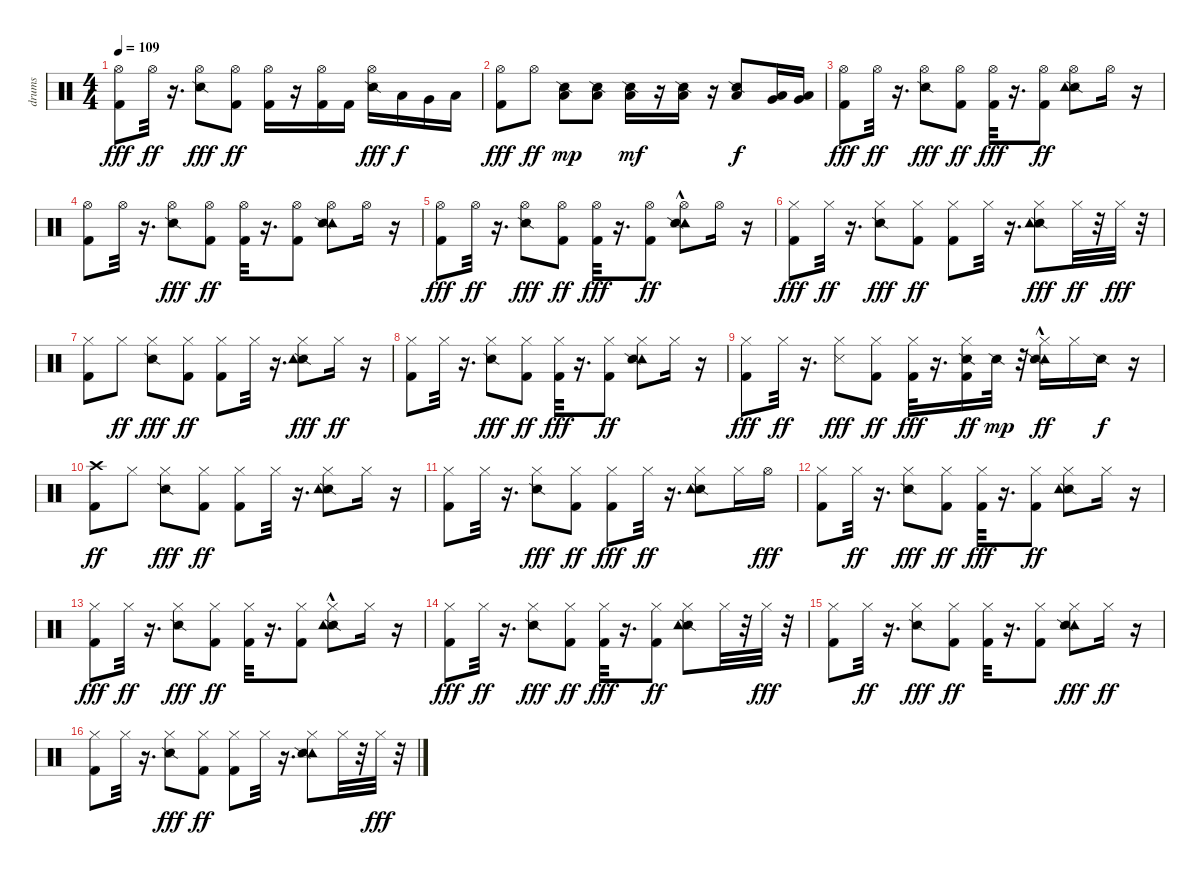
\track ("drums" "drums") {instrument percussion}
\staff {score}
\articulation defaults
\ts (4 4)
\tempo 109
\clef neutral
\ks c
("Kick (hit) 2" "Hi-Hat (open)").8{dy fff} "Hi-Hat (open)".32{dy ff} r.16{d} ("Hi-Hat (open)" "Snare (side stick) 2").8{dy fff} ("Hi-Hat (open)" "Kick (hit) 2").8{dy ff} ("Hi-Hat (open)" "Kick (hit) 2").16 r.16 ("Hi-Hat (open)" "Kick (hit) 2").16 "Kick (hit) 2".16 ("Hi-Hat (open)" "Snare (side stick) 2").16{dy fff} "Low Tom (hit)".16{dy f} "Very Low Tom (hit)".16 "Low Floor Tom (hit)".16 |
("Kick (hit) 2" "Hi-Hat (open)").8{dy fff} "Hi-Hat (open)".8{dy ff} ("Snare (side stick) 2" "Low Floor Tom (hit)").8{dy mp} ("Snare (side stick) 2" "Low Floor Tom (hit)").8 ("Low Floor Tom (hit)" "Snare (side stick) 2").16{dy mf} r.16 ("Low Floor Tom (hit)" "Snare (side stick) 2").16 r.16 ("Low Floor Tom (hit)" "Snare (side stick) 2").8{dy f} ("Low Tom (hit)" "Very Low Tom (hit)").16 ("Very Low Tom (hit)" "Low Floor Tom (hit)").16 |
("Kick (hit) 2" "Hi-Hat (open)").8{dy fff} "Hi-Hat (open)".32{dy ff} r.16{d} ("Snare (side stick) 2" "Hi-Hat (open)").8{dy fff} ("Hi-Hat (open)" "Kick (hit) 2").8{dy ff} ("Kick (hit) 2" "Hi-Hat (open)").32{dy fff} r.16{d} ("Hi-Hat (open)" "Kick (hit) 2").8{dy ff} ("Hi-Hat (open)" "Snare (side stick) 2" "Tambourine (hit)").8 "Hi-Hat (open)".16 r.16 |
("Hi-Hat (open)" "Kick (hit) 2").8 "Hi-Hat (open)".32 r.16{d} ("Hi-Hat (open)" "Snare (side stick) 2").8{dy fff} ("Kick (hit) 2" "Hi-Hat (open)").8{dy ff} ("Hi-Hat (open)" "Kick (hit) 2").32 r.16{d} ("Kick (hit) 2" "Hi-Hat (open)").8 ("Hi-Hat (open)" "Tambourine (hit)" "Snare (side stick) 2").8 "Hi-Hat (open)".16 r.16 |
("Kick (hit) 2" "Hi-Hat (open)").8{dy fff} "Hi-Hat (open)".32{dy ff} r.16{d} ("Snare (side stick) 2" "Hi-Hat (open)").8{dy fff} ("Kick (hit) 2" "Hi-Hat (open)").8{dy ff} ("Kick (hit) 2" "Hi-Hat (open)").32{dy fff} r.16{d} ("Kick (hit) 2" "Hi-Hat (open)").8{dy ff} ("Hi-Hat (open)" "Tambourine (hit)"{hac} "Snare (side stick) 2").8 "Hi-Hat (open)".16 r.16 |
("Kick (hit) 2" "Hi-Hat (closed)").8{dy fff} "Hi-Hat (closed)".32{dy ff} r.16{d} ("Hi-Hat (closed)" "Snare (side stick) 2").8{dy fff} ("Hi-Hat (closed)" "Kick (hit) 2").8{dy ff} ("Hi-Hat (closed)" "Kick (hit) 2").8 "Hi-Hat (closed)".32 r.16{d} ("Snare (side stick) 2" "Tambourine (hit)" "Hi-Hat (closed)").8{dy fff} "Hi-Hat (closed)".32{dy ff} r.32 "Hi-Hat (closed)".32{dy fff} r.32 |
("Kick (hit) 2" "Hi-Hat (closed)").8 "Hi-Hat (closed)".8{dy ff} ("Hi-Hat (closed)" "Snare (side stick) 2").8{dy fff} ("Hi-Hat (closed)" "Kick (hit) 2").8{dy ff} ("Hi-Hat (closed)" "Kick (hit) 2").8 "Hi-Hat (closed)".32 r.16{d} ("Snare (side stick) 2" "Tambourine (hit)" "Hi-Hat (closed)").8{dy fff} "Hi-Hat (closed)".16{dy ff} r.16 |
("Hi-Hat (closed)" "Kick (hit) 2").8 "Hi-Hat (closed)".32 r.16{d} ("Hi-Hat (closed)" "Snare (side stick) 2").8{dy fff} ("Hi-Hat (closed)" "Kick (hit) 2").8{dy ff} ("Kick (hit) 2" "Hi-Hat (closed)").32{dy fff} r.16{d} ("Kick (hit) 2" "Hi-Hat (closed)").8{dy ff} ("Hi-Hat (closed)" "Tambourine (hit)" "Snare (side stick) 2").8 "Hi-Hat (closed)".16 r.16 |
("Kick (hit) 2" "Hi-Hat (closed)").8{dy fff} "Hi-Hat (closed)".32{dy ff} r.16{d} ("Hi-Hat (closed)" "Snare (side stick) 3").8{dy fff} ("Kick (hit) 2" "Hi-Hat (closed)").8{dy ff} ("Kick (hit) 2" "Hi-Hat (closed)").32{dy fff} r.16{d} ("Kick (hit) 2" "Snare (side stick) 2" "Hi-Hat (closed)").16{dy ff} "Snare (side stick) 2".32{dy mp} r.32 ("Hi-Hat (closed)" "Tambourine (hit)"{hac} "Snare (side stick) 2").16{dy ff} "Hi-Hat (closed)".16 "Snare (side stick) 2".16{dy f} r.16 |
("Crash high (hit)" "Kick (hit) 2").8{dy ff} "Hi-Hat (closed)".8 ("Hi-Hat (closed)" "Snare (side stick) 2").8{dy fff} ("Hi-Hat (closed)" "Kick (hit) 2").8{dy ff} ("Hi-Hat (closed)" "Kick (hit) 2").8 "Hi-Hat (closed)".32 r.16{d} ("Snare (side stick) 2" "Hi-Hat (closed)" "Tambourine (hit)").8 "Hi-Hat (closed)".16 r.16 |
("Hi-Hat (closed)" "Kick (hit) 2").8 "Hi-Hat (closed)".32 r.16{d} ("Snare (side stick) 2" "Hi-Hat (closed)").8{dy fff} ("Hi-Hat (closed)" "Kick (hit) 2").8{dy ff} ("Kick (hit) 2" "Hi-Hat (closed)").8{dy fff} "Hi-Hat (closed)".32{dy ff} r.16{d} ("Snare (side stick) 2" "Hi-Hat (closed)" "Tambourine (hit)").8 "Hi-Hat (closed)".16 "Hi-Hat (open)".16{dy fff} |
("Kick (hit) 2" "Hi-Hat (closed)").8 "Hi-Hat (closed)".32{dy ff} r.16{d} ("Hi-Hat (closed)" "Snare (side stick) 2").8{dy fff} ("Hi-Hat (closed)" "Kick (hit) 2").8{dy ff} ("Kick (hit) 2" "Hi-Hat (closed)").32{dy fff} r.16{d} ("Kick (hit) 2" "Hi-Hat (closed)").8{dy ff} ("Snare (side stick) 2" "Hi-Hat (closed)" "Tambourine (hit)").8 "Hi-Hat (closed)".16 r.16 |
("Kick (hit) 2" "Hi-Hat (closed)").8{dy fff} "Hi-Hat (closed)".32{dy ff} r.16{d} ("Hi-Hat (closed)" "Snare (side stick) 2").8{dy fff} ("Hi-Hat (closed)" "Kick (hit) 2").8{dy ff} ("Hi-Hat (closed)" "Kick (hit) 2").32 r.16{d} ("Hi-Hat (closed)" "Kick (hit) 2").8 ("Hi-Hat (closed)" "Snare (side stick) 2" "Tambourine (hit)"{hac}).8 "Hi-Hat (closed)".16 r.16 |
("Kick (hit) 2" "Hi-Hat (closed)").8{dy fff} "Hi-Hat (closed)".32{dy ff} r.16{d} ("Hi-Hat (closed)" "Snare (side stick) 2").8{dy fff} ("Hi-Hat (closed)" "Kick (hit) 2").8{dy ff} ("Kick (hit) 2" "Hi-Hat (closed)").32{dy fff} r.16{d} ("Hi-Hat (closed)" "Kick (hit) 2").8{dy ff} ("Snare (side stick) 2" "Hi-Hat (closed)" "Tambourine (hit)").8 "Hi-Hat (closed)".32 r.32 "Hi-Hat (closed)".32{dy fff} r.32 |
("Kick (hit) 2" "Hi-Hat (closed)").8 "Hi-Hat (closed)".32{dy ff} r.16{d} ("Hi-Hat (closed)" "Snare (side stick) 2").8{dy fff} ("Kick (hit) 2" "Hi-Hat (closed)").8{dy ff} ("Hi-Hat (closed)" "Kick (hit) 2").32 r.16{d} ("Kick (hit) 2" "Hi-Hat (closed)").8 ("Tambourine (hit)" "Snare (side stick) 2" "Hi-Hat (closed)").8{dy fff} "Hi-Hat (closed)".16{dy ff} r.16 |
("Hi-Hat (closed)" "Kick (hit) 2").8 "Hi-Hat (closed)".32 r.16{d} ("Hi-Hat (closed)" "Snare (side stick) 2").8{dy fff} ("Hi-Hat (closed)" "Kick (hit) 2").8{dy ff} ("Hi-Hat (closed)" "Kick (hit) 2").8 "Hi-Hat (closed)".32 r.16{d} ("Hi-Hat (closed)" "Tambourine (hit)" "Snare (side stick) 2").8 "Hi-Hat (closed)".32 r.32 "Hi-Hat (closed)".32{dy fff} r.32
